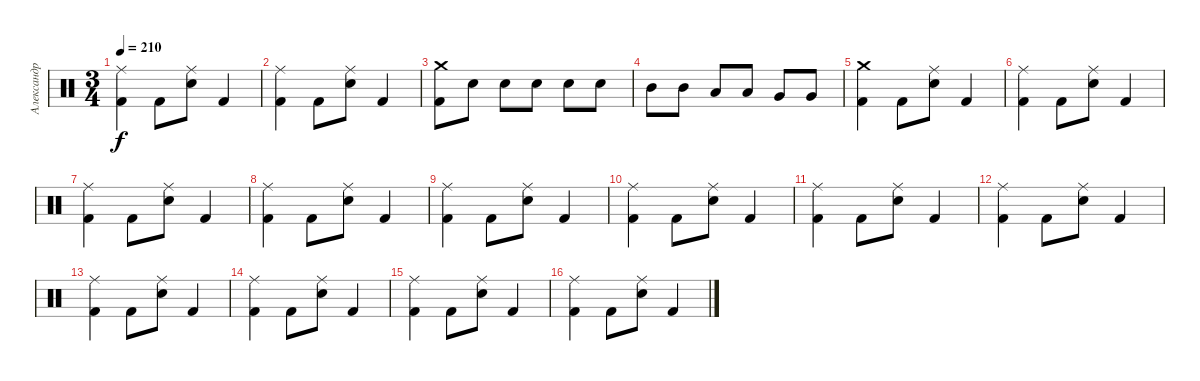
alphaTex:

\track ("Александр Манякин" "Александр ") {instrument percussion}
\staff {score}
\articulation defaults
\ts (3 4)
\tempo 210
\clef neutral
\ks c
("Ride (middle)" "Kick (hit) 2").4{dy f} "Kick (hit) 2".8 ("Ride (middle)" "Snare (hit) 2").8 "Kick (hit) 2".4 |
("Ride (middle)" "Kick (hit) 2").4 "Kick (hit) 2".8 ("Ride (middle)" "Snare (hit) 2").8 "Kick (hit) 2".4 |
("Crash medium (hit)" "Kick (hit) 2").8 "Snare (hit) 2".8 "Snare (hit) 2".8 "Snare (hit) 2".8 "Snare (hit) 2".8 "Snare (hit) 2".8 |
"Mid Tom (hit)".8 "Mid Tom (hit)".8 "Low Tom (hit)".8 "Low Tom (hit)".8 "Very Low Tom (hit)".8 "Very Low Tom (hit)".8 |
("Crash medium (hit)" "Kick (hit) 2").4 "Kick (hit) 2".8 ("Ride (middle)" "Snare (hit) 2").8 "Kick (hit) 2".4 |
("Ride (middle)" "Kick (hit) 2").4 "Kick (hit) 2".8 ("Ride (middle)" "Snare (hit) 2").8 "Kick (hit) 2".4 |
("Ride (middle)" "Kick (hit) 2").4 "Kick (hit) 2".8 ("Ride (middle)" "Snare (hit) 2").8 "Kick (hit) 2".4 |
("Ride (middle)" "Kick (hit) 2").4 "Kick (hit) 2".8 ("Ride (middle)" "Snare (hit) 2").8 "Kick (hit) 2".4 |
("Ride (middle)" "Kick (hit) 2").4 "Kick (hit) 2".8 ("Ride (middle)" "Snare (hit) 2").8 "Kick (hit) 2".4 |
("Ride (middle)" "Kick (hit) 2").4 "Kick (hit) 2".8 ("Ride (middle)" "Snare (hit) 2").8 "Kick (hit) 2".4 |
("Ride (middle)" "Kick (hit) 2").4 "Kick (hit) 2".8 ("Ride (middle)" "Snare (hit) 2").8 "Kick (hit) 2".4 |
("Ride (middle)" "Kick (hit) 2").4 "Kick (hit) 2".8 ("Ride (middle)" "Snare (hit) 2").8 "Kick (hit) 2".4 |
("Ride (middle)" "Kick (hit) 2").4 "Kick (hit) 2".8 ("Ride (middle)" "Snare (hit) 2").8 "Kick (hit) 2".4 |
("Ride (middle)" "Kick (hit) 2").4 "Kick (hit) 2".8 ("Ride (middle)" "Snare (hit) 2").8 "Kick (hit) 2".4 |
("Ride (middle)" "Kick (hit) 2").4 "Kick (hit) 2".8 ("Ride (middle)" "Snare (hit) 2").8 "Kick (hit) 2".4 |
("Ride (middle)" "Kick (hit) 2").4 "Kick (hit) 2".8 ("Ride (middle)" "Snare (hit) 2").8 "Kick (hit) 2".4
